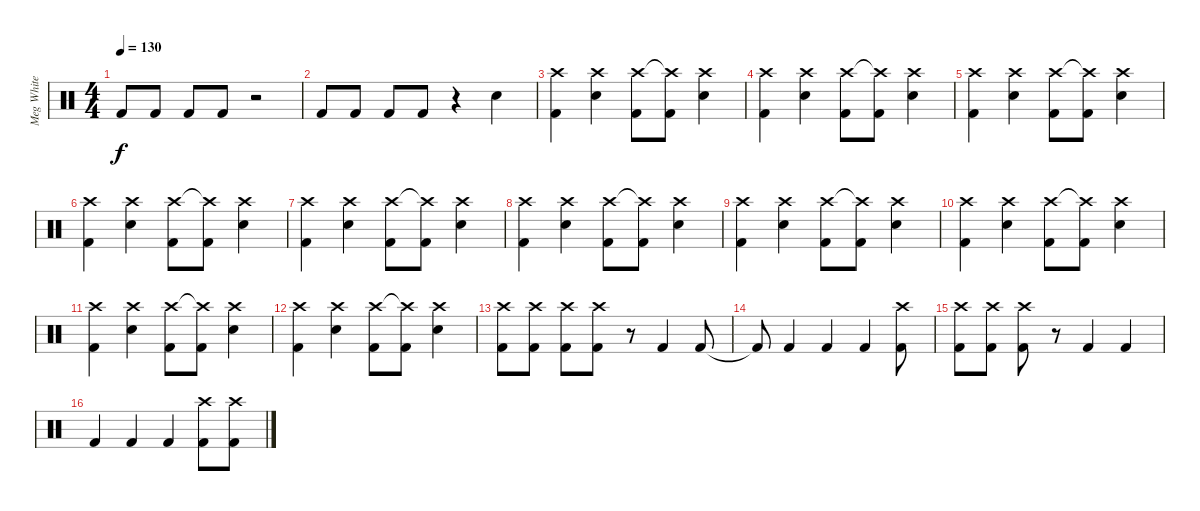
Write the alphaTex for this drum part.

\track ("Meg White" "Meg White") {instrument percussion}
\staff {score}
\articulation defaults
\ts (4 4)
\tempo 130
\clef neutral
\ks c "Kick (hit) 2".8{dy f} "Kick (hit) 2".8 "Kick (hit) 2".8 "Kick (hit) 2".8
r.2 |
"Kick (hit) 2".8 "Kick (hit) 2".8 "Kick (hit) 2".8 "Kick (hit) 2".8 r.4 "Snare (hit) 2".4 |
("Crash high (hit)" "Kick (hit) 2").4 ("Crash high (hit)" "Snare (hit) 2").4 ("Crash high (hit)" "Kick (hit) 2").8 ("Crash high (hit)"{t} "Kick (hit) 2").8 ("Crash high (hit)" "Snare (hit) 2").4 |
("Crash high (hit)" "Kick (hit) 2").4 ("Crash high (hit)" "Snare (hit) 2").4 ("Crash high (hit)" "Kick (hit) 2").8 ("Crash high (hit)"{t} "Kick (hit) 2").8 ("Crash high (hit)" "Snare (hit) 2").4 |
("Crash high (hit)" "Kick (hit) 2").4 ("Crash high (hit)" "Snare (hit) 2").4 ("Crash high (hit)" "Kick (hit) 2").8 ("Crash high (hit)"{t} "Kick (hit) 2").8 ("Crash high (hit)" "Snare (hit) 2").4 |
("Crash high (hit)" "Kick (hit) 2").4 ("Crash high (hit)" "Snare (hit) 2").4 ("Crash high (hit)" "Kick (hit) 2").8 ("Crash high (hit)"{t} "Kick (hit) 2").8 ("Crash high (hit)" "Snare (hit) 2").4 |
("Crash high (hit)" "Kick (hit) 2").4 ("Crash high (hit)" "Snare (hit) 2").4 ("Crash high (hit)" "Kick (hit) 2").8 ("Crash high (hit)"{t} "Kick (hit) 2").8 ("Crash high (hit)" "Snare (hit) 2").4 |
("Crash high (hit)" "Kick (hit) 2").4 ("Crash high (hit)" "Snare (hit) 2").4 ("Crash high (hit)" "Kick (hit) 2").8 ("Crash high (hit)"{t} "Kick (hit) 2").8 ("Crash high (hit)" "Snare (hit) 2").4 |
("Crash high (hit)" "Kick (hit) 2").4 ("Crash high (hit)" "Snare (hit) 2").4 ("Crash high (hit)" "Kick (hit) 2").8 ("Crash high (hit)"{t} "Kick (hit) 2").8 ("Crash high (hit)" "Snare (hit) 2").4 |
("Crash high (hit)" "Kick (hit) 2").4 ("Crash high (hit)" "Snare (hit) 2").4 ("Crash high (hit)" "Kick (hit) 2").8 ("Crash high (hit)"{t} "Kick (hit) 2").8 ("Crash high (hit)" "Snare (hit) 2").4 |
("Crash high (hit)" "Kick (hit) 2").4 ("Crash high (hit)" "Snare (hit) 2").4 ("Crash high (hit)" "Kick (hit) 2").8 ("Crash high (hit)"{t} "Kick (hit) 2").8 ("Crash high (hit)" "Snare (hit) 2").4 |
("Crash high (hit)" "Kick (hit) 2").4 ("Crash high (hit)" "Snare (hit) 2").4 ("Crash high (hit)" "Kick (hit) 2").8 ("Crash high (hit)"{t} "Kick (hit) 2").8 ("Crash high (hit)" "Snare (hit) 2").4 |
("Crash high (hit)" "Kick (hit) 2").8 ("Crash high (hit)" "Kick (hit) 2").8 ("Crash high (hit)" "Kick (hit) 2").8 ("Crash high (hit)" "Kick (hit) 2").8 r.8 "Kick (hit) 2".4 "Kick (hit) 2".8 |
"Kick (hit) 2"{t}.8 "Kick (hit) 2".4 "Kick (hit) 2".4 "Kick (hit) 2".4 ("Crash high (hit)" "Kick (hit) 2").8 |
("Crash high (hit)" "Kick (hit) 2").8 ("Crash high (hit)" "Kick (hit) 2").8 ("Crash high (hit)" "Kick (hit) 2").8 r.8 "Kick (hit) 2".4 "Kick (hit) 2".4 |
"Kick (hit) 2".4 "Kick (hit) 2".4 "Kick (hit) 2".4 ("Crash high (hit)" "Kick (hit) 2").8 ("Crash high (hit)" "Kick (hit) 2").8
